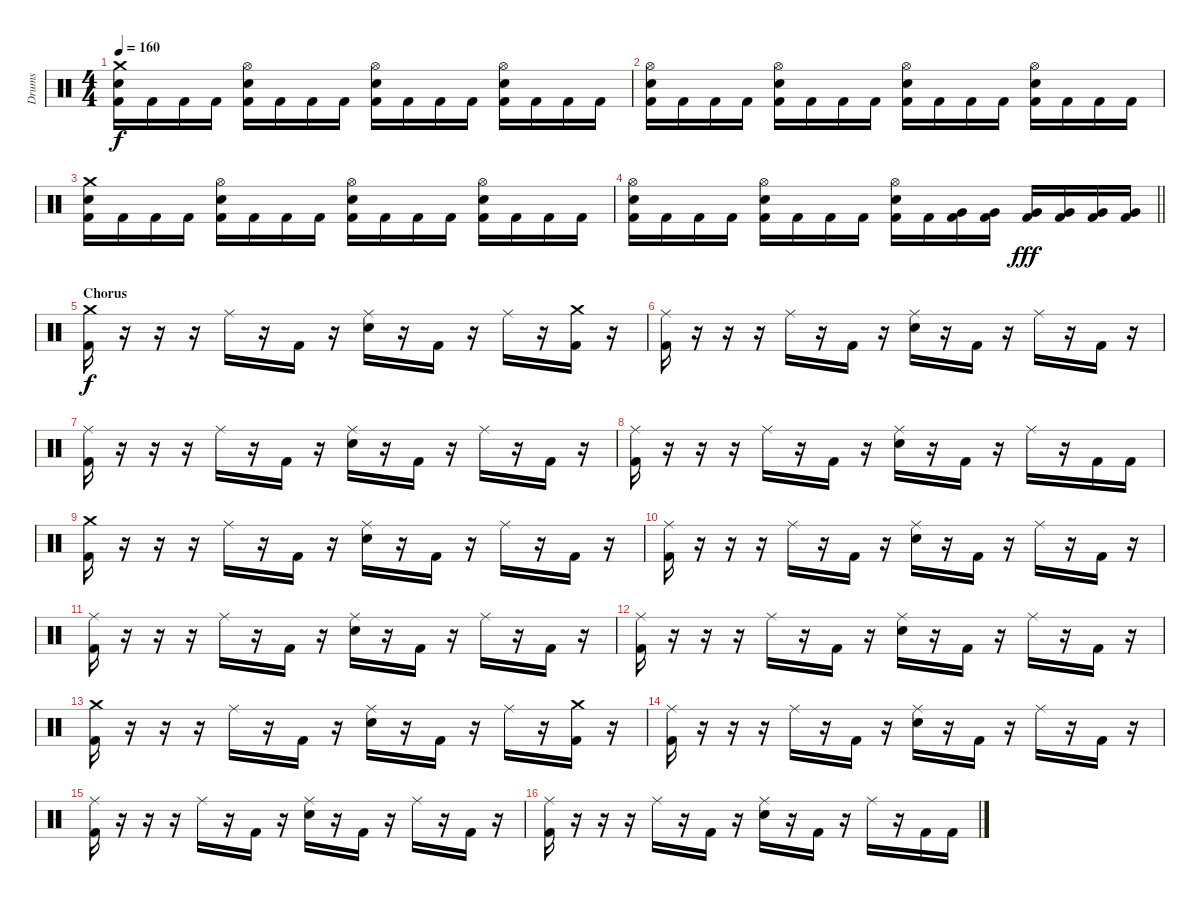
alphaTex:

\track ("Drums" "Drums") {instrument percussion}
\staff {score}
\articulation defaults
\ts (4 4)
\tempo 160
\clef neutral
\ks c
("Crash medium (hit)" "Electric Snare (hit)" "Kick (hit) 2").16{dy f} "Kick (hit) 2".16 "Kick (hit) 2".16 "Kick (hit) 2".16 ("Hi-Hat (open)" "Electric Snare (hit)" "Kick (hit) 2").16 "Kick (hit) 2".16 "Kick (hit) 2".16 "Kick (hit) 2".16 ("Hi-Hat (open)" "Electric Snare (hit)" "Kick (hit) 2").16 "Kick (hit) 2".16 "Kick (hit) 2".16 "Kick (hit) 2".16 ("Hi-Hat (open)" "Electric Snare (hit)" "Kick (hit) 2").16 "Kick (hit) 2".16 "Kick (hit) 2".16 "Kick (hit) 2".16 |
("Hi-Hat (open)" "Electric Snare (hit)" "Kick (hit) 2").16 "Kick (hit) 2".16 "Kick (hit) 2".16 "Kick (hit) 2".16 ("Hi-Hat (open)" "Electric Snare (hit)" "Kick (hit) 2").16 "Kick (hit) 2".16 "Kick (hit) 2".16 "Kick (hit) 2".16 ("Hi-Hat (open)" "Electric Snare (hit)" "Kick (hit) 2").16 "Kick (hit) 2".16 "Kick (hit) 2".16 "Kick (hit) 2".16 ("Hi-Hat (open)" "Electric Snare (hit)" "Kick (hit) 2").16 "Kick (hit) 2".16 "Kick (hit) 2".16 "Kick (hit) 2".16 |
("Crash medium (hit)" "Electric Snare (hit)" "Kick (hit) 2").16 "Kick (hit) 2".16 "Kick (hit) 2".16 "Kick (hit) 2".16 ("Hi-Hat (open)" "Electric Snare (hit)" "Kick (hit) 2").16 "Kick (hit) 2".16 "Kick (hit) 2".16 "Kick (hit) 2".16 ("Hi-Hat (open)" "Electric Snare (hit)" "Kick (hit) 2").16 "Kick (hit) 2".16 "Kick (hit) 2".16 "Kick (hit) 2".16 ("Hi-Hat (open)" "Electric Snare (hit)" "Kick (hit) 2").16 "Kick (hit) 2".16 "Kick (hit) 2".16 "Kick (hit) 2".16 |
\barLineRight lightlight
("Hi-Hat (open)" "Electric Snare (hit)" "Kick (hit) 2").16 "Kick (hit) 2".16 "Kick (hit) 2".16 "Kick (hit) 2".16 ("Hi-Hat (open)" "Electric Snare (hit)" "Kick (hit) 2").16 "Kick (hit) 2".16 "Kick (hit) 2".16 "Kick (hit) 2".16 ("Hi-Hat (open)" "Electric Snare (hit)" "Kick (hit) 2").16 "Kick (hit) 2".16 ("Very Low Tom (hit)" "Kick (hit) 2").16 ("Very Low Tom (hit)" "Kick (hit) 2").16 ("Very Low Tom (hit)" "Kick (hit) 2").16{dy fff} ("Very Low Tom (hit)" "Kick (hit) 2").16 ("Very Low Tom (hit)" "Kick (hit) 2").16 ("Very Low Tom (hit)" "Kick (hit) 2").16 |
\section ("" "Chorus")
("Crash medium (hit)" "Kick (hit) 2").16{dy f} r.16 r.16 r.16 "Ride (middle)".16 r.16 "Kick (hit) 2".16 r.16 ("Ride (middle)" "Electric Snare (hit)").16 r.16 "Kick (hit) 2".16 r.16 "Ride (middle)".16 r.16 ("Crash medium (hit)" "Kick (hit) 2").16 r.16 |
("Ride (middle)" "Kick (hit) 2").16 r.16 r.16 r.16 "Ride (middle)".16 r.16 "Kick (hit) 2".16 r.16 ("Ride (middle)" "Electric Snare (hit)").16 r.16 "Kick (hit) 2".16 r.16 "Ride (middle)".16 r.16 "Kick (hit) 2".16 r.16 |
("Ride (middle)" "Kick (hit) 2").16 r.16 r.16 r.16 "Ride (middle)".16 r.16 "Kick (hit) 2".16 r.16 ("Ride (middle)" "Electric Snare (hit)").16 r.16 "Kick (hit) 2".16 r.16 "Ride (middle)".16 r.16 "Kick (hit) 2".16 r.16 |
("Ride (middle)" "Kick (hit) 2").16 r.16 r.16 r.16 "Ride (middle)".16 r.16 "Kick (hit) 2".16 r.16 ("Ride (middle)" "Electric Snare (hit)").16 r.16 "Kick (hit) 2".16 r.16 "Ride (middle)".16 r.16 "Kick (hit) 2".16 "Kick (hit) 2".16 |
("Crash medium (hit)" "Kick (hit) 2").16 r.16 r.16 r.16 "Ride (middle)".16 r.16 "Kick (hit) 2".16 r.16 ("Ride (middle)" "Electric Snare (hit)").16 r.16 "Kick (hit) 2".16 r.16 "Ride (middle)".16 r.16 "Kick (hit) 2".16 r.16 |
("Ride (middle)" "Kick (hit) 2").16 r.16 r.16 r.16 "Ride (middle)".16 r.16 "Kick (hit) 2".16 r.16 ("Ride (middle)" "Electric Snare (hit)").16 r.16 "Kick (hit) 2".16 r.16 "Ride (middle)".16 r.16 "Kick (hit) 2".16 r.16 |
("Ride (middle)" "Kick (hit) 2").16 r.16 r.16 r.16 "Ride (middle)".16 r.16 "Kick (hit) 2".16 r.16 ("Ride (middle)" "Electric Snare (hit)").16 r.16 "Kick (hit) 2".16 r.16 "Ride (middle)".16 r.16 "Kick (hit) 2".16 r.16 |
("Ride (middle)" "Kick (hit) 2").16 r.16 r.16 r.16 "Ride (middle)".16 r.16 "Kick (hit) 2".16 r.16 ("Ride (middle)" "Electric Snare (hit)").16 r.16 "Kick (hit) 2".16 r.16 "Ride (middle)".16 r.16 "Kick (hit) 2".16 r.16 |
("Crash medium (hit)" "Kick (hit) 2").16 r.16 r.16 r.16 "Ride (middle)".16 r.16 "Kick (hit) 2".16 r.16 ("Ride (middle)" "Electric Snare (hit)").16 r.16 "Kick (hit) 2".16 r.16 "Ride (middle)".16 r.16 ("Crash medium (hit)" "Kick (hit) 2").16 r.16 |
("Ride (middle)" "Kick (hit) 2").16 r.16 r.16 r.16 "Ride (middle)".16 r.16 "Kick (hit) 2".16 r.16 ("Ride (middle)" "Electric Snare (hit)").16 r.16 "Kick (hit) 2".16 r.16 "Ride (middle)".16 r.16 "Kick (hit) 2".16 r.16 |
("Ride (middle)" "Kick (hit) 2").16 r.16 r.16 r.16 "Ride (middle)".16 r.16 "Kick (hit) 2".16 r.16 ("Ride (middle)" "Electric Snare (hit)").16 r.16 "Kick (hit) 2".16 r.16 "Ride (middle)".16 r.16 "Kick (hit) 2".16 r.16 |
("Ride (middle)" "Kick (hit) 2").16 r.16 r.16 r.16 "Ride (middle)".16 r.16 "Kick (hit) 2".16 r.16 ("Ride (middle)" "Electric Snare (hit)").16 r.16 "Kick (hit) 2".16 r.16 "Ride (middle)".16 r.16 "Kick (hit) 2".16 "Kick (hit) 2".16
